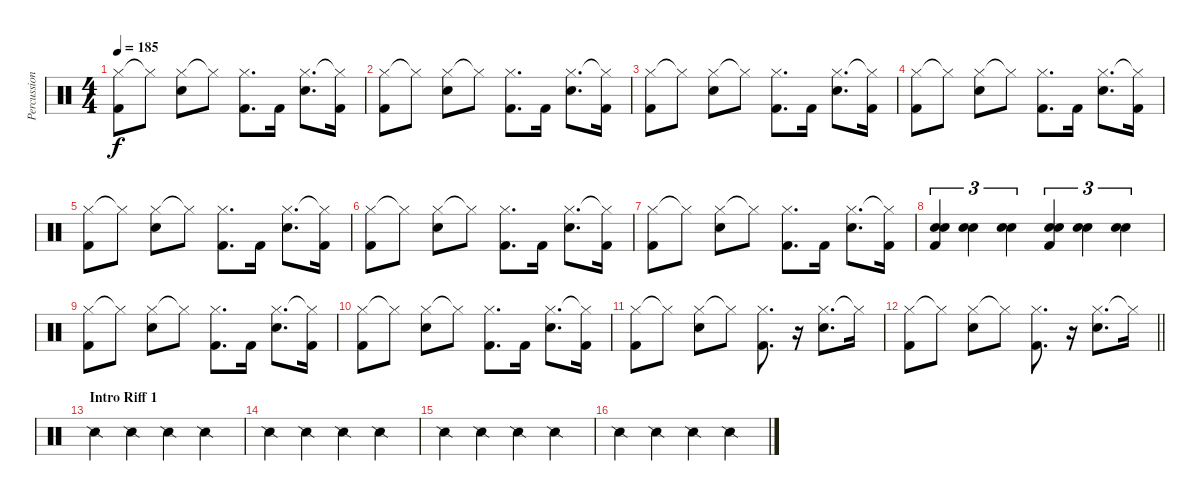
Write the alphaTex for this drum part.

\track ("Percussion" "Percussion") {instrument percussion}
\staff {score}
\articulation defaults
\ts (4 4)
\tempo 185
\clef neutral
\ks c
("Hi-Hat (closed)" "Kick (hit) 2").8{dy f} "Hi-Hat (closed)"{t}.8 ("Hi-Hat (closed)" "Snare (hit) 2").8 "Hi-Hat (closed)"{t}.8 ("Hi-Hat (closed)" "Kick (hit) 2").8{d} "Kick (hit) 2".16 ("Hi-Hat (closed)" "Snare (hit) 2").8{d} ("Hi-Hat (closed)"{t} "Kick (hit) 2").16 |
("Hi-Hat (closed)" "Kick (hit) 2").8 "Hi-Hat (closed)"{t}.8 ("Hi-Hat (closed)" "Snare (hit) 2").8 "Hi-Hat (closed)"{t}.8 ("Hi-Hat (closed)" "Kick (hit) 2").8{d} "Kick (hit) 2".16 ("Hi-Hat (closed)" "Snare (hit) 2").8{d} ("Hi-Hat (closed)"{t} "Kick (hit) 2").16 |
("Hi-Hat (closed)" "Kick (hit) 2").8 "Hi-Hat (closed)"{t}.8 ("Hi-Hat (closed)" "Snare (hit) 2").8 "Hi-Hat (closed)"{t}.8 ("Hi-Hat (closed)" "Kick (hit) 2").8{d} "Kick (hit) 2".16 ("Hi-Hat (closed)" "Snare (hit) 2").8{d} ("Hi-Hat (closed)"{t} "Kick (hit) 2").16 |
("Hi-Hat (closed)" "Kick (hit) 2").8 "Hi-Hat (closed)"{t}.8 ("Hi-Hat (closed)" "Snare (hit) 2").8 "Hi-Hat (closed)"{t}.8 ("Hi-Hat (closed)" "Kick (hit) 2").8{d} "Kick (hit) 2".16 ("Hi-Hat (closed)" "Snare (hit) 2").8{d} ("Hi-Hat (closed)"{t} "Kick (hit) 2").16 |
("Hi-Hat (closed)" "Kick (hit) 2").8 "Hi-Hat (closed)"{t}.8 ("Hi-Hat (closed)" "Snare (hit) 2").8 "Hi-Hat (closed)"{t}.8 ("Hi-Hat (closed)" "Kick (hit) 2").8{d} "Kick (hit) 2".16 ("Hi-Hat (closed)" "Snare (hit) 2").8{d} ("Hi-Hat (closed)"{t} "Kick (hit) 2").16 |
("Hi-Hat (closed)" "Kick (hit) 2").8 "Hi-Hat (closed)"{t}.8 ("Hi-Hat (closed)" "Snare (hit) 2").8 "Hi-Hat (closed)"{t}.8 ("Hi-Hat (closed)" "Kick (hit) 2").8{d} "Kick (hit) 2".16 ("Hi-Hat (closed)" "Snare (hit) 2").8{d} ("Hi-Hat (closed)"{t} "Kick (hit) 2").16 |
("Hi-Hat (closed)" "Kick (hit) 2").8 "Hi-Hat (closed)"{t}.8 ("Hi-Hat (closed)" "Snare (hit) 2").8 "Hi-Hat (closed)"{t}.8 ("Hi-Hat (closed)" "Kick (hit) 2").8{d} "Kick (hit) 2".16 ("Hi-Hat (closed)" "Snare (hit) 2").8{d} ("Hi-Hat (closed)"{t} "Kick (hit) 2").16 |
("Snare (hit) 2" "Snare (hit) 2" "Kick (hit) 2").4{tu (3 2)} ("Snare (hit) 2" "Snare (hit) 2").4{tu (3 2)} ("Snare (hit) 2" "Snare (hit) 2").4{tu (3 2)} ("Snare (hit) 2" "Snare (hit) 2" "Kick (hit) 2").4{tu (3 2)} ("Snare (hit) 2" "Snare (hit) 2").4{tu (3 2)} ("Snare (hit) 2" "Snare (hit) 2").4{tu (3 2)} |
("Hi-Hat (closed)" "Kick (hit) 2").8 "Hi-Hat (closed)"{t}.8 ("Hi-Hat (closed)" "Snare (hit) 2").8 "Hi-Hat (closed)"{t}.8 ("Hi-Hat (closed)" "Kick (hit) 2").8{d} "Kick (hit) 2".16 ("Hi-Hat (closed)" "Snare (hit) 2").8{d} ("Hi-Hat (closed)"{t} "Kick (hit) 2").16 |
("Hi-Hat (closed)" "Kick (hit) 2").8 "Hi-Hat (closed)"{t}.8 ("Hi-Hat (closed)" "Snare (hit) 2").8 "Hi-Hat (closed)"{t}.8 ("Hi-Hat (closed)" "Kick (hit) 2").8{d} "Kick (hit) 2".16 ("Hi-Hat (closed)" "Snare (hit) 2").8{d} ("Hi-Hat (closed)"{t} "Kick (hit) 2").16 |
("Hi-Hat (closed)" "Kick (hit) 2").8 "Hi-Hat (closed)"{t}.8 ("Hi-Hat (closed)" "Snare (hit) 2").8 "Hi-Hat (closed)"{t}.8 ("Hi-Hat (closed)" "Kick (hit) 2").8{d} r.16 ("Hi-Hat (closed)" "Snare (hit) 2").8{d} "Hi-Hat (closed)"{t}.16 |
\barLineRight lightlight
("Hi-Hat (closed)" "Kick (hit) 2").8 "Hi-Hat (closed)"{t}.8 ("Hi-Hat (closed)" "Snare (hit) 2").8 "Hi-Hat (closed)"{t}.8 ("Hi-Hat (closed)" "Kick (hit) 2").8{d} r.16 ("Hi-Hat (closed)" "Snare (hit) 2").8{d} "Hi-Hat (closed)"{t}.16 |
\section ("" "Intro Riff 1")
"Snare (side stick) 2".4 "Snare (side stick) 2".4 "Snare (side stick) 2".4 "Snare (side stick) 2".4 |
"Snare (side stick) 2".4 "Snare (side stick) 2".4 "Snare (side stick) 2".4 "Snare (side stick) 2".4 |
"Snare (side stick) 2".4 "Snare (side stick) 2".4 "Snare (side stick) 2".4 "Snare (side stick) 2".4 |
"Snare (side stick) 2".4 "Snare (side stick) 2".4 "Snare (side stick) 2".4 "Snare (side stick) 2".4
